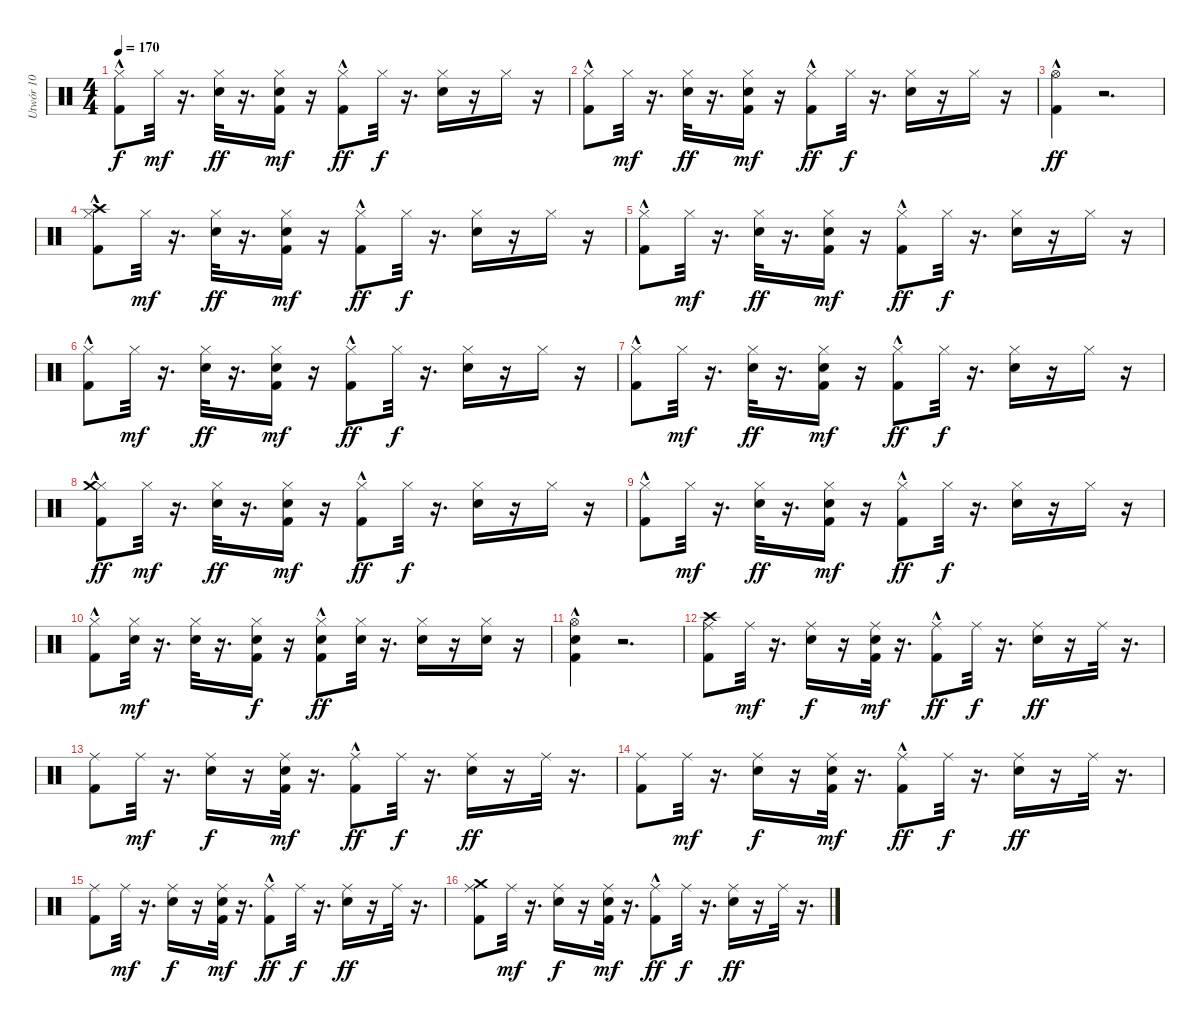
\track ("Utwór 10" "Utwór 10") {instrument percussion}
\staff {score}
\articulation defaults
\ts (4 4)
\tempo 170
\clef neutral
\ks c
("Kick (hit) 2"{hac} "Hi-Hat (closed)").8{dy f} "Hi-Hat (closed)".32{dy mf} r.16{d} ("Hi-Hat (closed)" "Electric Snare (hit)").32{dy ff} r.16{d} ("Electric Snare (hit)" "Kick (hit) 2" "Hi-Hat (closed)").16{dy mf} r.16 ("Kick (hit) 2"{hac} "Hi-Hat (closed)").8{dy ff} "Hi-Hat (closed)".32{dy f} r.16{d} ("Hi-Hat (closed)" "Electric Snare (hit)").16 r.16 "Hi-Hat (closed)".16 r.16 |
("Hi-Hat (closed)" "Kick (hit) 2"{hac}).8 "Hi-Hat (closed)".32{dy mf} r.16{d} ("Hi-Hat (closed)" "Electric Snare (hit)").32{dy ff} r.16{d} ("Kick (hit) 2" "Hi-Hat (closed)" "Electric Snare (hit)").16{dy mf} r.16 ("Kick (hit) 2"{hac} "Hi-Hat (closed)").8{dy ff} "Hi-Hat (closed)".32{dy f} r.16{d} ("Hi-Hat (closed)" "Electric Snare (hit)").16 r.16 "Hi-Hat (closed)".16 r.16 |
("Hi-Hat (open)" "Kick (hit) 2"{hac}).4{dy ff} r.2{d} |
("Crash high (hit)" "Kick (hit) 2"{hac} "Hi-Hat (closed)").8 "Hi-Hat (closed)".32{dy mf} r.16{d} ("Hi-Hat (closed)" "Electric Snare (hit)").32{dy ff} r.16{d} ("Kick (hit) 2" "Hi-Hat (closed)" "Electric Snare (hit)").16{dy mf} r.16 ("Hi-Hat (closed)" "Kick (hit) 2"{hac}).8{dy ff} "Hi-Hat (closed)".32{dy f} r.16{d} ("Electric Snare (hit)" "Hi-Hat (closed)").16 r.16 "Hi-Hat (closed)".16 r.16 |
("Hi-Hat (closed)" "Kick (hit) 2"{hac}).8 "Hi-Hat (closed)".32{dy mf} r.16{d} ("Hi-Hat (closed)" "Electric Snare (hit)").32{dy ff} r.16{d} ("Electric Snare (hit)" "Hi-Hat (closed)" "Kick (hit) 2").16{dy mf} r.16 ("Hi-Hat (closed)" "Kick (hit) 2"{hac}).8{dy ff} "Hi-Hat (closed)".32{dy f} r.16{d} ("Hi-Hat (closed)" "Electric Snare (hit)").16 r.16 "Hi-Hat (closed)".16 r.16 |
("Hi-Hat (closed)" "Kick (hit) 2"{hac}).8 "Hi-Hat (closed)".32{dy mf} r.16{d} ("Electric Snare (hit)" "Hi-Hat (closed)").32{dy ff} r.16{d} ("Electric Snare (hit)" "Hi-Hat (closed)" "Kick (hit) 2").16{dy mf} r.16 ("Kick (hit) 2"{hac} "Hi-Hat (closed)").8{dy ff} "Hi-Hat (closed)".32{dy f} r.16{d} ("Electric Snare (hit)" "Hi-Hat (closed)").16 r.16 "Hi-Hat (closed)".16 r.16 |
("Hi-Hat (closed)" "Kick (hit) 2"{hac}).8 "Hi-Hat (closed)".32{dy mf} r.16{d} ("Hi-Hat (closed)" "Electric Snare (hit)").32{dy ff} r.16{d} ("Electric Snare (hit)" "Hi-Hat (closed)" "Kick (hit) 2").16{dy mf} r.16 ("Hi-Hat (closed)" "Kick (hit) 2"{hac}).8{dy ff} "Hi-Hat (closed)".32{dy f} r.16{d} ("Electric Snare (hit)" "Hi-Hat (closed)").16 r.16 "Hi-Hat (closed)".16 r.16 |
("Hi-Hat (closed)" "Crash medium (hit)" "Kick (hit) 2"{hac}).8{dy ff} "Hi-Hat (closed)".32{dy mf} r.16{d} ("Electric Snare (hit)" "Hi-Hat (closed)").32{dy ff} r.16{d} ("Hi-Hat (closed)" "Kick (hit) 2" "Electric Snare (hit)").16{dy mf} r.16 ("Kick (hit) 2"{hac} "Hi-Hat (closed)").8{dy ff} "Hi-Hat (closed)".32{dy f} r.16{d} ("Hi-Hat (closed)" "Electric Snare (hit)").16 r.16 "Hi-Hat (closed)".16 r.16 |
("Kick (hit) 2"{hac} "Hi-Hat (closed)").8 "Hi-Hat (closed)".32{dy mf} r.16{d} ("Hi-Hat (closed)" "Electric Snare (hit)").32{dy ff} r.16{d} ("Hi-Hat (closed)" "Electric Snare (hit)" "Kick (hit) 2").16{dy mf} r.16 ("Hi-Hat (closed)" "Kick (hit) 2"{hac}).8{dy ff} "Hi-Hat (closed)".32{dy f} r.16{d} ("Electric Snare (hit)" "Hi-Hat (closed)").16 r.16 "Hi-Hat (closed)".16 r.16 |
("Kick (hit) 2"{hac} "Hi-Hat (closed)").8 ("Hi-Hat (closed)" "Electric Snare (hit)").32{dy mf} r.16{d} ("Electric Snare (hit)" "Hi-Hat (closed)").32 r.16{d} ("Electric Snare (hit)" "Hi-Hat (closed)" "Kick (hit) 2").16{dy f} r.16 ("Kick (hit) 2"{hac} "Hi-Hat (closed)" "Electric Snare (hit)").8{dy ff} ("Electric Snare (hit)" "Hi-Hat (closed)").32 r.16{d} ("Electric Snare (hit)" "Hi-Hat (closed)").16 r.16 ("Hi-Hat (closed)" "Electric Snare (hit)").16 r.16 |
("Hi-Hat (open)" "Electric Snare (hit)" "Kick (hit) 2"{hac}).4 r.2{d} |
("Ride (middle)" "Crash high (hit)" "Kick (hit) 2").8 "Ride (middle)".32{dy mf} r.16{d} ("Ride (middle)" "Snare (hit) 2").16{dy f} r.16 ("Snare (hit) 2" "Kick (hit) 2" "Ride (middle)").32{dy mf} r.16{d} ("Kick (hit) 2"{hac} "Ride (middle)").8{dy ff} "Ride (middle)".32{dy f} r.16{d} ("Ride (middle)" "Snare (hit) 2").16{dy ff} r.16 "Ride (middle)".32 r.16{d} |
("Kick (hit) 2" "Ride (middle)").8 "Ride (middle)".32{dy mf} r.16{d} ("Ride (middle)" "Snare (hit) 2").16{dy f} r.16 ("Snare (hit) 2" "Ride (middle)" "Kick (hit) 2").32{dy mf} r.16{d} ("Ride (middle)" "Kick (hit) 2"{hac}).8{dy ff} "Ride (middle)".32{dy f} r.16{d} ("Ride (middle)" "Snare (hit) 2").16{dy ff} r.16 "Ride (middle)".32 r.16{d} |
("Ride (middle)" "Kick (hit) 2").8 "Ride (middle)".32{dy mf} r.16{d} ("Ride (middle)" "Snare (hit) 2").16{dy f} r.16 ("Ride (middle)" "Snare (hit) 2" "Kick (hit) 2").32{dy mf} r.16{d} ("Ride (middle)" "Kick (hit) 2"{hac}).8{dy ff} "Ride (middle)".32{dy f} r.16{d} ("Snare (hit) 2" "Ride (middle)").16{dy ff} r.16 "Ride (middle)".32 r.16{d} |
("Kick (hit) 2" "Ride (middle)").8 "Ride (middle)".32{dy mf} r.16{d} ("Snare (hit) 2" "Ride (middle)").16{dy f} r.16 ("Ride (middle)" "Kick (hit) 2" "Snare (hit) 2").32{dy mf} r.16{d} ("Kick (hit) 2"{hac} "Ride (middle)").8{dy ff} "Ride (middle)".32{dy f} r.16{d} ("Snare (hit) 2" "Ride (middle)").16{dy ff} r.16 "Ride (middle)".32 r.16{d} |
("Ride (middle)" "Kick (hit) 2" "Crash medium (hit)").8 "Ride (middle)".32{dy mf} r.16{d} ("Ride (middle)" "Snare (hit) 2").16{dy f} r.16 ("Ride (middle)" "Snare (hit) 2" "Kick (hit) 2").32{dy mf} r.16{d} ("Ride (middle)" "Kick (hit) 2"{hac}).8{dy ff} "Ride (middle)".32{dy f} r.16{d} ("Snare (hit) 2" "Ride (middle)").16{dy ff} r.16 "Ride (middle)".32 r.16{d}
